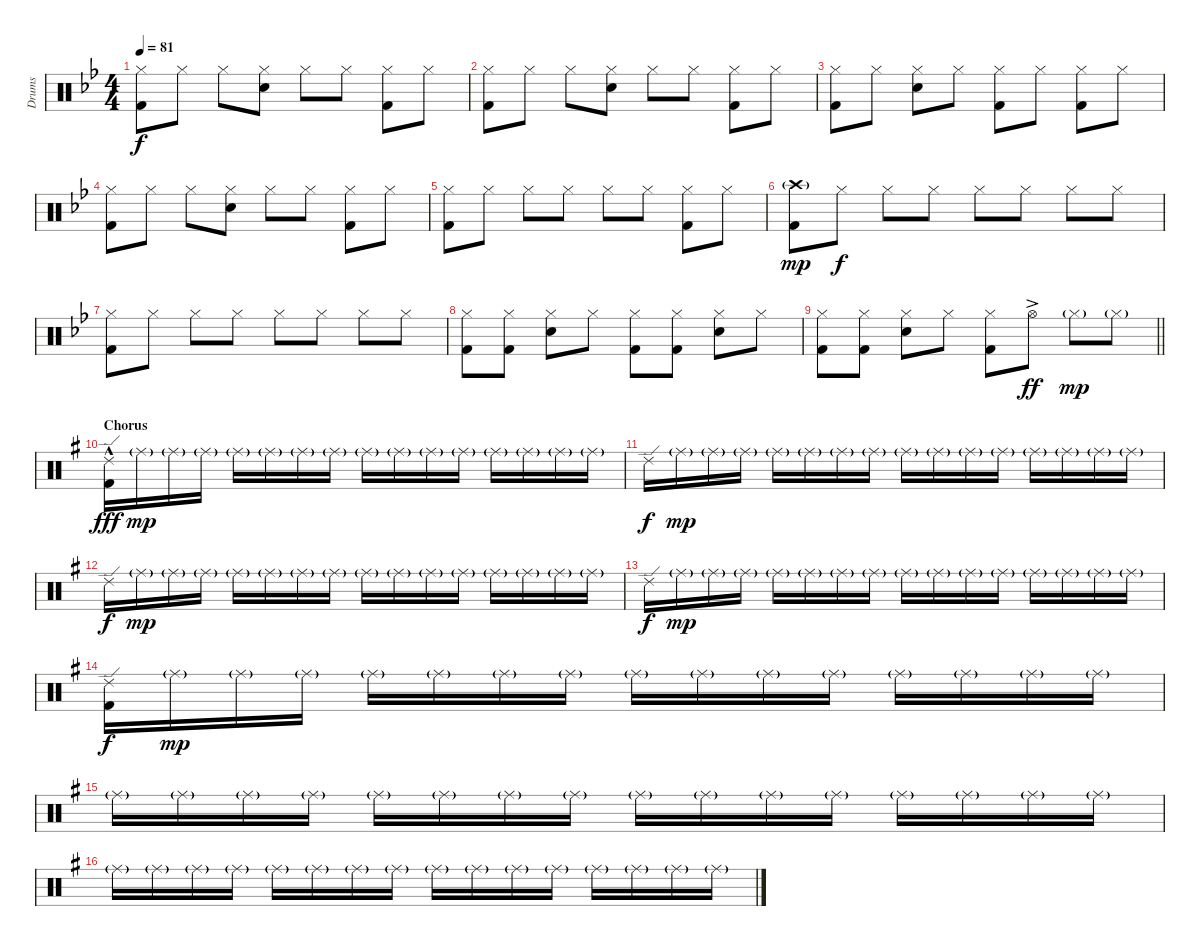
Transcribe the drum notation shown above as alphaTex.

\track ("Drums" "Drums") {instrument percussion}
\staff {score}
\articulation defaults
\ts (4 4)
\tempo 81
\clef neutral
\ks gminor
("Hi-Hat (closed)" "Kick (hit) 2").8{dy f} "Hi-Hat (closed)".8 "Hi-Hat (closed)".8 ("Hi-Hat (closed)" "Electric Snare (hit)").8 "Hi-Hat (closed)".8 "Hi-Hat (closed)".8 ("Hi-Hat (closed)" "Kick (hit) 2").8 "Hi-Hat (closed)".8 |
("Hi-Hat (closed)" "Kick (hit) 2").8 "Hi-Hat (closed)".8 "Hi-Hat (closed)".8 ("Hi-Hat (closed)" "Electric Snare (hit)").8 "Hi-Hat (closed)".8 "Hi-Hat (closed)".8 ("Hi-Hat (closed)" "Kick (hit) 2").8 "Hi-Hat (closed)".8 |
("Hi-Hat (closed)" "Kick (hit) 2").8 "Hi-Hat (closed)".8 ("Hi-Hat (closed)" "Electric Snare (hit)").8 "Hi-Hat (closed)".8 ("Hi-Hat (closed)" "Kick (hit) 2").8 "Hi-Hat (closed)".8 ("Hi-Hat (closed)" "Kick (hit) 2").8 "Hi-Hat (closed)".8 |
("Hi-Hat (closed)" "Kick (hit) 2").8 "Hi-Hat (closed)".8 "Hi-Hat (closed)".8 ("Hi-Hat (closed)" "Electric Snare (hit)").8 "Hi-Hat (closed)".8 "Hi-Hat (closed)".8 ("Hi-Hat (closed)" "Kick (hit) 2").8 "Hi-Hat (closed)".8 |
("Hi-Hat (closed)" "Kick (hit) 2").8 "Hi-Hat (closed)".8 "Hi-Hat (closed)".8 "Hi-Hat (closed)".8 "Hi-Hat (closed)".8 "Hi-Hat (closed)".8 ("Hi-Hat (closed)" "Kick (hit) 2").8 "Hi-Hat (closed)".8 |
("Crash high (hit)"{g} "Kick (hit) 2").8{dy mp} "Hi-Hat (closed)".8{dy f} "Hi-Hat (closed)".8 "Hi-Hat (closed)".8 "Hi-Hat (closed)".8 "Hi-Hat (closed)".8 "Hi-Hat (closed)".8 "Hi-Hat (closed)".8 |
("Hi-Hat (closed)" "Kick (hit) 2").8 "Hi-Hat (closed)".8 "Hi-Hat (closed)".8 "Hi-Hat (closed)".8 "Hi-Hat (closed)".8 "Hi-Hat (closed)".8 "Hi-Hat (closed)".8 "Hi-Hat (closed)".8 |
("Hi-Hat (closed)" "Kick (hit) 2").8 ("Hi-Hat (closed)" "Kick (hit) 2").8 ("Hi-Hat (closed)" "Electric Snare (hit)").8 "Hi-Hat (closed)".8 ("Hi-Hat (closed)" "Kick (hit) 2").8 ("Hi-Hat (closed)" "Kick (hit) 2").8 ("Hi-Hat (closed)" "Electric Snare (hit)").8 "Hi-Hat (closed)".8 |
\barLineRight lightlight
("Hi-Hat (closed)" "Kick (hit) 2").8 ("Hi-Hat (closed)" "Kick (hit) 2").8 ("Hi-Hat (closed)" "Electric Snare (hit)").8 "Hi-Hat (closed)".8 ("Hi-Hat (closed)" "Kick (hit) 2").8 "Hi-Hat (open)"{ac}.8{dy ff} "Hi-Hat (closed)"{g}.8{dy mp} "Hi-Hat (closed)"{g}.8 |
\section ("" "Chorus")
\ks g
("Ride (edge) 2"{hac} "Kick (hit) 2").16{dy fff} "Ride (middle)"{g}.16{dy mp} "Ride (middle)"{g}.16 "Ride (middle)"{g}.16 "Ride (middle)"{g}.16 "Ride (middle)"{g}.16 "Ride (middle)"{g}.16 "Ride (middle)"{g}.16 "Ride (middle)"{g}.16 "Ride (middle)"{g}.16 "Ride (middle)"{g}.16 "Ride (middle)"{g}.16 "Ride (middle)"{g}.16 "Ride (middle)"{g}.16 "Ride (middle)"{g}.16 "Ride (middle)"{g}.16 |
"Ride (edge) 2".16{dy f} "Ride (middle)"{g}.16{dy mp} "Ride (middle)"{g}.16 "Ride (middle)"{g}.16 "Ride (middle)"{g}.16 "Ride (middle)"{g}.16 "Ride (middle)"{g}.16 "Ride (middle)"{g}.16 "Ride (middle)"{g}.16 "Ride (middle)"{g}.16 "Ride (middle)"{g}.16 "Ride (middle)"{g}.16 "Ride (middle)"{g}.16 "Ride (middle)"{g}.16 "Ride (middle)"{g}.16 "Ride (middle)"{g}.16 |
"Ride (edge) 2".16{dy f} "Ride (middle)"{g}.16{dy mp} "Ride (middle)"{g}.16 "Ride (middle)"{g}.16 "Ride (middle)"{g}.16 "Ride (middle)"{g}.16 "Ride (middle)"{g}.16 "Ride (middle)"{g}.16 "Ride (middle)"{g}.16 "Ride (middle)"{g}.16 "Ride (middle)"{g}.16 "Ride (middle)"{g}.16 "Ride (middle)"{g}.16 "Ride (middle)"{g}.16 "Ride (middle)"{g}.16 "Ride (middle)"{g}.16 |
"Ride (edge) 2".16{dy f} "Ride (middle)"{g}.16{dy mp} "Ride (middle)"{g}.16 "Ride (middle)"{g}.16 "Ride (middle)"{g}.16 "Ride (middle)"{g}.16 "Ride (middle)"{g}.16 "Ride (middle)"{g}.16 "Ride (middle)"{g}.16 "Ride (middle)"{g}.16 "Ride (middle)"{g}.16 "Ride (middle)"{g}.16 "Ride (middle)"{g}.16 "Ride (middle)"{g}.16 "Ride (middle)"{g}.16 "Ride (middle)"{g}.16 |
("Ride (edge) 2" "Kick (hit) 2").16{dy f} "Ride (middle)"{g}.16{dy mp} "Ride (middle)"{g}.16 "Ride (middle)"{g}.16 "Ride (middle)"{g}.16 "Ride (middle)"{g}.16 "Ride (middle)"{g}.16 "Ride (middle)"{g}.16 "Ride (middle)"{g}.16 "Ride (middle)"{g}.16 "Ride (middle)"{g}.16 "Ride (middle)"{g}.16 "Ride (middle)"{g}.16 "Ride (middle)"{g}.16 "Ride (middle)"{g}.16 "Ride (middle)"{g}.16 |
"Ride (middle)"{g}.16 "Ride (middle)"{g}.16 "Ride (middle)"{g}.16 "Ride (middle)"{g}.16 "Ride (middle)"{g}.16 "Ride (middle)"{g}.16 "Ride (middle)"{g}.16 "Ride (middle)"{g}.16 "Ride (middle)"{g}.16 "Ride (middle)"{g}.16 "Ride (middle)"{g}.16 "Ride (middle)"{g}.16 "Ride (middle)"{g}.16 "Ride (middle)"{g}.16 "Ride (middle)"{g}.16 "Ride (middle)"{g}.16 |
"Ride (middle)"{g}.16 "Ride (middle)"{g}.16 "Ride (middle)"{g}.16 "Ride (middle)"{g}.16 "Ride (middle)"{g}.16 "Ride (middle)"{g}.16 "Ride (middle)"{g}.16 "Ride (middle)"{g}.16 "Ride (middle)"{g}.16 "Ride (middle)"{g}.16 "Ride (middle)"{g}.16 "Ride (middle)"{g}.16 "Ride (middle)"{g}.16 "Ride (middle)"{g}.16 "Ride (middle)"{g}.16 "Ride (middle)"{g}.16
